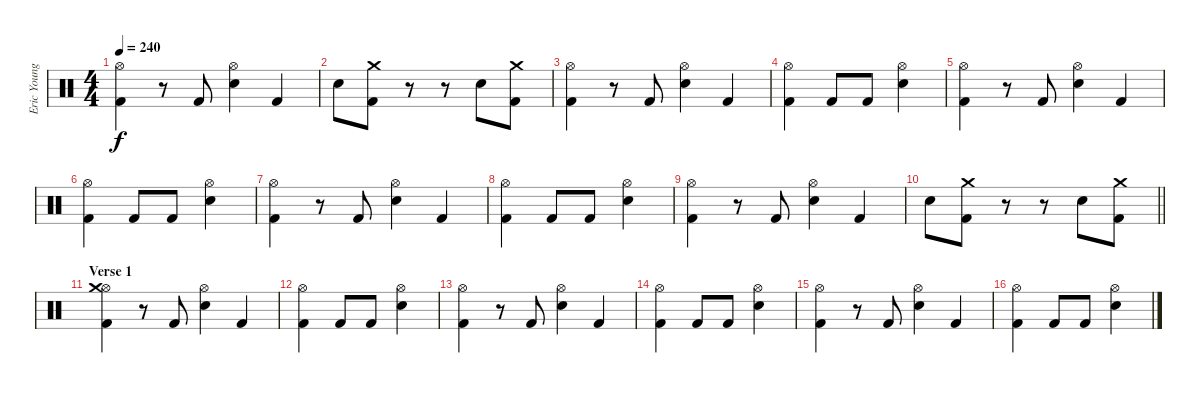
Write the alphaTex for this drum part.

\track ("Eric Young (Drums)" "Eric Young") {instrument percussion}
\staff {score}
\articulation defaults
\ts (4 4)
\tempo 240
\clef neutral
\ks c
("Hi-Hat (open)" "Kick (hit) 2").4{dy f} r.8 "Kick (hit) 2".8 ("Hi-Hat (open)" "Snare (hit) 2").4 "Kick (hit) 2".4 |
"Snare (hit) 2".8 ("Kick (hit) 2" "Crash medium (hit)").8 r.8 r.8 "Snare (hit) 2".8 ("Kick (hit) 2" "Crash medium (hit)").8 |
("Hi-Hat (open)" "Kick (hit) 2").4 r.8 "Kick (hit) 2".8 ("Hi-Hat (open)" "Snare (hit) 2").4 "Kick (hit) 2".4 |
("Hi-Hat (open)" "Kick (hit) 2").4 "Kick (hit) 2".8 "Kick (hit) 2".8 ("Hi-Hat (open)" "Snare (hit) 2").4 |
("Hi-Hat (open)" "Kick (hit) 2").4 r.8 "Kick (hit) 2".8 ("Hi-Hat (open)" "Snare (hit) 2").4 "Kick (hit) 2".4 |
("Hi-Hat (open)" "Kick (hit) 2").4 "Kick (hit) 2".8 "Kick (hit) 2".8 ("Hi-Hat (open)" "Snare (hit) 2").4 |
("Hi-Hat (open)" "Kick (hit) 2").4 r.8 "Kick (hit) 2".8 ("Hi-Hat (open)" "Snare (hit) 2").4 "Kick (hit) 2".4 |
("Hi-Hat (open)" "Kick (hit) 2").4 "Kick (hit) 2".8 "Kick (hit) 2".8 ("Hi-Hat (open)" "Snare (hit) 2").4 |
("Hi-Hat (open)" "Kick (hit) 2").4 r.8 "Kick (hit) 2".8 ("Hi-Hat (open)" "Snare (hit) 2").4 "Kick (hit) 2".4 |
\barLineRight lightlight "Snare (hit) 2".8
("Kick (hit) 2" "Crash medium (hit)").8 r.8 r.8 "Snare (hit) 2".8 ("Kick (hit) 2" "Crash medium (hit)").8 |
\section ("" "Verse 1")
("Hi-Hat (open)" "Kick (hit) 2" "Crash medium (hit)").4 r.8 "Kick (hit) 2".8 ("Hi-Hat (open)" "Snare (hit) 2").4 "Kick (hit) 2".4 |
("Hi-Hat (open)" "Kick (hit) 2").4 "Kick (hit) 2".8 "Kick (hit) 2".8 ("Hi-Hat (open)" "Snare (hit) 2").4 |
("Hi-Hat (open)" "Kick (hit) 2").4 r.8 "Kick (hit) 2".8 ("Hi-Hat (open)" "Snare (hit) 2").4 "Kick (hit) 2".4 |
("Hi-Hat (open)" "Kick (hit) 2").4 "Kick (hit) 2".8 "Kick (hit) 2".8 ("Hi-Hat (open)" "Snare (hit) 2").4 |
("Hi-Hat (open)" "Kick (hit) 2").4 r.8 "Kick (hit) 2".8 ("Hi-Hat (open)" "Snare (hit) 2").4 "Kick (hit) 2".4 |
("Hi-Hat (open)" "Kick (hit) 2").4 "Kick (hit) 2".8 "Kick (hit) 2".8 ("Hi-Hat (open)" "Snare (hit) 2").4
